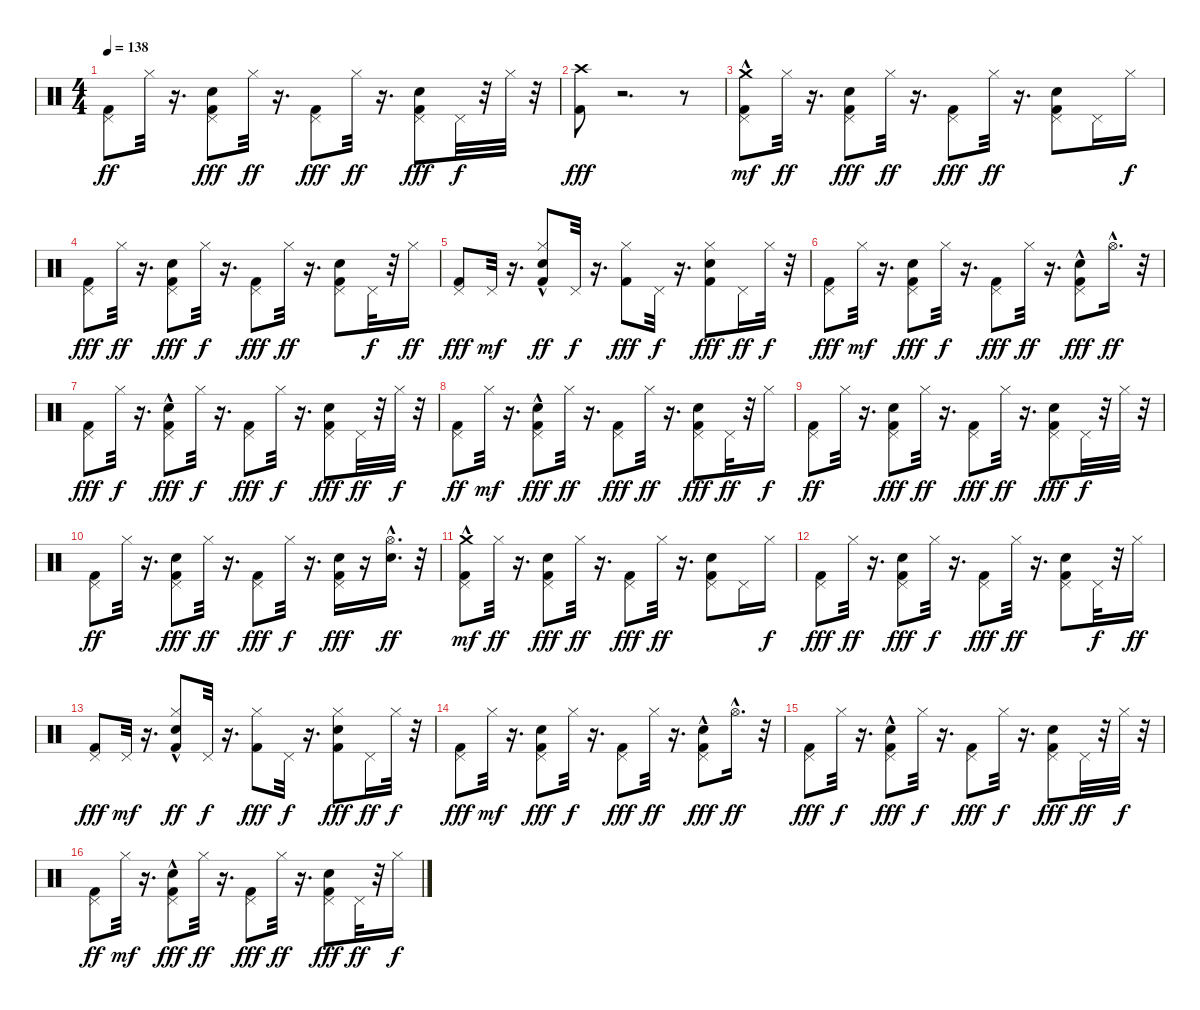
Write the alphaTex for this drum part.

\track "" {instrument percussion}
\staff {score}
\articulation defaults
\ts (4 4)
\tempo 138
\clef neutral
\ks c
("Kick (hit) 2" "Pedal Hi-Hat (hit)").8{dy ff} "Hi-Hat (closed)".32 r.16{d} ("Pedal Hi-Hat (hit)" "Snare (hit) 2" "Kick (hit) 2").8{dy fff} "Hi-Hat (closed)".32{dy ff} r.16{d} ("Kick (hit) 2" "Pedal Hi-Hat (hit)").8{dy fff} "Hi-Hat (closed)".32{dy ff} r.16{d} ("Pedal Hi-Hat (hit)" "Snare (hit) 2" "Kick (hit) 2").8{dy fff} "Pedal Hi-Hat (hit)".32{dy f} r.32 "Hi-Hat (closed)".32 r.32 |
("Crash high (hit)" "Kick (hit) 2").8{dy fff} r.2{d} r.8 |
("Kick (hit) 2" "Pedal Hi-Hat (hit)" "Crash medium (hit)"{hac}).8{dy mf} "Hi-Hat (closed)".32{dy ff} r.16{d} ("Pedal Hi-Hat (hit)" "Kick (hit) 2" "Snare (hit) 2").8{dy fff} "Hi-Hat (closed)".32{dy ff} r.16{d} ("Pedal Hi-Hat (hit)" "Kick (hit) 2").8{dy fff} "Hi-Hat (closed)".32{dy ff} r.16{d} ("Snare (hit) 2" "Kick (hit) 2" "Pedal Hi-Hat (hit)").8 "Pedal Hi-Hat (hit)".16 "Hi-Hat (closed)".16{dy f} |
("Kick (hit) 2" "Pedal Hi-Hat (hit)").8{dy fff} "Hi-Hat (closed)".32{dy ff} r.16{d} ("Kick (hit) 2" "Snare (hit) 2" "Pedal Hi-Hat (hit)").8{dy fff} "Hi-Hat (closed)".32{dy f} r.16{d} ("Pedal Hi-Hat (hit)" "Kick (hit) 2").8{dy fff} "Hi-Hat (closed)".32{dy ff} r.16{d} ("Kick (hit) 2" "Snare (hit) 2" "Pedal Hi-Hat (hit)").8 "Pedal Hi-Hat (hit)".32{dy f} r.32 "Hi-Hat (closed)".16{dy ff} |
("Kick (hit) 2" "Pedal Hi-Hat (hit)").8{dy fff} "Pedal Hi-Hat (hit)".32{dy mf} r.16{d} ("Snare (hit) 2"{hac} "Kick (hit) 2" "Hi-Hat (closed)").8{dy ff} "Pedal Hi-Hat (hit)".32{dy f} r.16{d} ("Hi-Hat (closed)" "Kick (hit) 2").8{dy fff} "Pedal Hi-Hat (hit)".32{dy f} r.16{d} ("Snare (hit) 2" "Hi-Hat (closed)" "Kick (hit) 2").8{dy fff} "Pedal Hi-Hat (hit)".16{dy ff} "Hi-Hat (closed)".32{dy f} r.32 |
("Kick (hit) 2" "Pedal Hi-Hat (hit)").8{dy fff} "Hi-Hat (closed)".32{dy mf} r.16{d} ("Snare (hit) 2" "Kick (hit) 2" "Pedal Hi-Hat (hit)").8{dy fff} "Hi-Hat (closed)".32{dy f} r.16{d} ("Pedal Hi-Hat (hit)" "Kick (hit) 2").8{dy fff} "Hi-Hat (closed)".32{dy ff} r.16{d} ("Pedal Hi-Hat (hit)" "Snare (hit) 2"{hac} "Kick (hit) 2").8{dy fff} "Hi-Hat (open)"{hac}.16{d dy ff} r.32 |
("Kick (hit) 2" "Pedal Hi-Hat (hit)").8{dy fff} "Hi-Hat (closed)".32{dy f} r.16{d} ("Pedal Hi-Hat (hit)" "Snare (hit) 2"{hac} "Kick (hit) 2").8{dy fff} "Hi-Hat (closed)".32{dy f} r.16{d} ("Kick (hit) 2" "Pedal Hi-Hat (hit)").8{dy fff} "Hi-Hat (closed)".32{dy f} r.16{d} ("Kick (hit) 2" "Snare (hit) 2" "Pedal Hi-Hat (hit)").8{dy fff} "Pedal Hi-Hat (hit)".32{dy ff} r.32 "Hi-Hat (closed)".32{dy f} r.32 |
("Kick (hit) 2" "Pedal Hi-Hat (hit)").8{dy ff} "Hi-Hat (closed)".32{dy mf} r.16{d} ("Snare (hit) 2"{hac} "Kick (hit) 2" "Pedal Hi-Hat (hit)").8{dy fff} "Hi-Hat (closed)".32{dy ff} r.16{d} ("Pedal Hi-Hat (hit)" "Kick (hit) 2").8{dy fff} "Hi-Hat (closed)".32{dy ff} r.16{d} ("Snare (hit) 2" "Kick (hit) 2" "Pedal Hi-Hat (hit)").8{dy fff} "Pedal Hi-Hat (hit)".32{dy ff} r.32 "Hi-Hat (closed)".16{dy f} |
("Kick (hit) 2" "Pedal Hi-Hat (hit)").8{dy ff} "Hi-Hat (closed)".32 r.16{d} ("Pedal Hi-Hat (hit)" "Snare (hit) 2" "Kick (hit) 2").8{dy fff} "Hi-Hat (closed)".32{dy ff} r.16{d} ("Kick (hit) 2" "Pedal Hi-Hat (hit)").8{dy fff} "Hi-Hat (closed)".32{dy ff} r.16{d} ("Pedal Hi-Hat (hit)" "Snare (hit) 2" "Kick (hit) 2").8{dy fff} "Pedal Hi-Hat (hit)".32{dy f} r.32 "Hi-Hat (closed)".32 r.32 |
("Kick (hit) 2" "Pedal Hi-Hat (hit)").8{dy ff} "Hi-Hat (closed)".32 r.16{d} ("Snare (hit) 2" "Pedal Hi-Hat (hit)" "Kick (hit) 2").8{dy fff} "Hi-Hat (closed)".32{dy ff} r.16{d} ("Kick (hit) 2" "Pedal Hi-Hat (hit)").8{dy fff} "Hi-Hat (closed)".32{dy f} r.16{d} ("Pedal Hi-Hat (hit)" "Snare (hit) 2" "Kick (hit) 2").16{dy fff} r.16 ("Snare (hit) 2" "Hi-Hat (open)"{hac}).16{d dy ff} r.32 |
("Kick (hit) 2" "Pedal Hi-Hat (hit)" "Crash medium (hit)"{hac}).8{dy mf} "Hi-Hat (closed)".32{dy ff} r.16{d} ("Pedal Hi-Hat (hit)" "Kick (hit) 2" "Snare (hit) 2").8{dy fff} "Hi-Hat (closed)".32{dy ff} r.16{d} ("Pedal Hi-Hat (hit)" "Kick (hit) 2").8{dy fff} "Hi-Hat (closed)".32{dy ff} r.16{d} ("Snare (hit) 2" "Kick (hit) 2" "Pedal Hi-Hat (hit)").8 "Pedal Hi-Hat (hit)".16 "Hi-Hat (closed)".16{dy f} |
("Kick (hit) 2" "Pedal Hi-Hat (hit)").8{dy fff} "Hi-Hat (closed)".32{dy ff} r.16{d} ("Kick (hit) 2" "Snare (hit) 2" "Pedal Hi-Hat (hit)").8{dy fff} "Hi-Hat (closed)".32{dy f} r.16{d} ("Pedal Hi-Hat (hit)" "Kick (hit) 2").8{dy fff} "Hi-Hat (closed)".32{dy ff} r.16{d} ("Kick (hit) 2" "Snare (hit) 2" "Pedal Hi-Hat (hit)").8 "Pedal Hi-Hat (hit)".32{dy f} r.32 "Hi-Hat (closed)".16{dy ff} |
("Kick (hit) 2" "Pedal Hi-Hat (hit)").8{dy fff} "Pedal Hi-Hat (hit)".32{dy mf} r.16{d} ("Snare (hit) 2"{hac} "Kick (hit) 2" "Hi-Hat (closed)").8{dy ff} "Pedal Hi-Hat (hit)".32{dy f} r.16{d} ("Hi-Hat (closed)" "Kick (hit) 2").8{dy fff} "Pedal Hi-Hat (hit)".32{dy f} r.16{d} ("Snare (hit) 2" "Hi-Hat (closed)" "Kick (hit) 2").8{dy fff} "Pedal Hi-Hat (hit)".16{dy ff} "Hi-Hat (closed)".32{dy f} r.32 |
("Kick (hit) 2" "Pedal Hi-Hat (hit)").8{dy fff} "Hi-Hat (closed)".32{dy mf} r.16{d} ("Snare (hit) 2" "Kick (hit) 2" "Pedal Hi-Hat (hit)").8{dy fff} "Hi-Hat (closed)".32{dy f} r.16{d} ("Pedal Hi-Hat (hit)" "Kick (hit) 2").8{dy fff} "Hi-Hat (closed)".32{dy ff} r.16{d} ("Pedal Hi-Hat (hit)" "Snare (hit) 2"{hac} "Kick (hit) 2").8{dy fff} "Hi-Hat (open)"{hac}.16{d dy ff} r.32 |
("Kick (hit) 2" "Pedal Hi-Hat (hit)").8{dy fff} "Hi-Hat (closed)".32{dy f} r.16{d} ("Pedal Hi-Hat (hit)" "Snare (hit) 2"{hac} "Kick (hit) 2").8{dy fff} "Hi-Hat (closed)".32{dy f} r.16{d} ("Kick (hit) 2" "Pedal Hi-Hat (hit)").8{dy fff} "Hi-Hat (closed)".32{dy f} r.16{d} ("Kick (hit) 2" "Snare (hit) 2" "Pedal Hi-Hat (hit)").8{dy fff} "Pedal Hi-Hat (hit)".32{dy ff} r.32 "Hi-Hat (closed)".32{dy f} r.32 |
("Kick (hit) 2" "Pedal Hi-Hat (hit)").8{dy ff} "Hi-Hat (closed)".32{dy mf} r.16{d} ("Snare (hit) 2"{hac} "Kick (hit) 2" "Pedal Hi-Hat (hit)").8{dy fff} "Hi-Hat (closed)".32{dy ff} r.16{d} ("Pedal Hi-Hat (hit)" "Kick (hit) 2").8{dy fff} "Hi-Hat (closed)".32{dy ff} r.16{d} ("Snare (hit) 2" "Kick (hit) 2" "Pedal Hi-Hat (hit)").8{dy fff} "Pedal Hi-Hat (hit)".32{dy ff} r.32 "Hi-Hat (closed)".16{dy f}
